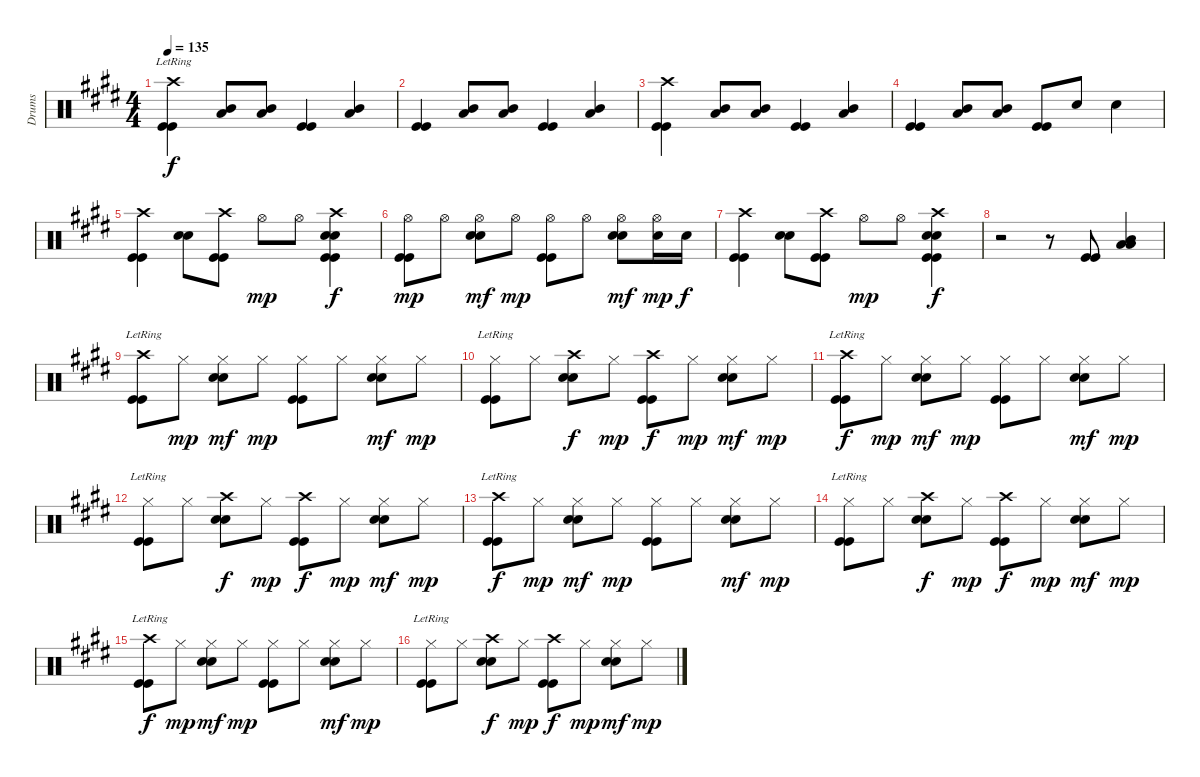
\track ("Drums" "Drums") {instrument percussion}
\staff {score}
\articulation defaults
\ts (4 4)
\tempo 135
\clef neutral
\ks e
("Crash high (hit)"{lr} "Kick (hit)" "Kick (hit)").4{dy f} ("Low Tom (hit)" "Mid Tom (hit)").8 ("Low Tom (hit)" "Mid Tom (hit)").8 ("Kick (hit)" "Kick (hit)").4 ("Low Tom (hit)" "Mid Tom (hit)").4 |
("Kick (hit)" "Kick (hit)").4 ("Low Tom (hit)" "Mid Tom (hit)").8 ("Low Tom (hit)" "Mid Tom (hit)").8 ("Kick (hit)" "Kick (hit)").4 ("Low Tom (hit)" "Mid Tom (hit)").4 |
("Crash high (hit)" "Kick (hit)" "Kick (hit)").4 ("Low Tom (hit)" "Mid Tom (hit)").8 ("Low Tom (hit)" "Mid Tom (hit)").8 ("Kick (hit)" "Kick (hit)").4 ("Low Tom (hit)" "Mid Tom (hit)").4 |
("Kick (hit)" "Kick (hit)").4 ("Low Tom (hit)" "Mid Tom (hit)").8 ("Low Tom (hit)" "Mid Tom (hit)").8 ("Kick (hit)" "Kick (hit)").8 "Snare (hit) 2".8 "Snare (hit) 2".4 |
("Crash high (hit)" "Kick (hit)" "Kick (hit)").4 ("Snare (hit) 2" "Snare (hit) 2").8 ("Crash high (hit)" "Kick (hit)" "Kick (hit)").8 "Hi-Hat (open)".8{dy mp} "Hi-Hat (open)".8 ("Crash high (hit)" "Snare (hit) 2" "Snare (hit) 2" "Kick (hit)" "Kick (hit)").4{dy f} |
("Hi-Hat (open)" "Kick (hit)" "Kick (hit)").8{dy mp} "Hi-Hat (open)".8 ("Hi-Hat (open)" "Snare (hit) 2" "Snare (hit) 2").8{dy mf} "Hi-Hat (open)".8{dy mp} ("Hi-Hat (open)" "Kick (hit)" "Kick (hit)").8 "Hi-Hat (open)".8 ("Hi-Hat (open)" "Snare (hit) 2" "Snare (hit) 2").8{dy mf} ("Hi-Hat (open)" "Snare (hit) 2").16{dy mp} "Snare (hit) 2".16{dy f} |
("Crash high (hit)" "Kick (hit)" "Kick (hit)").4 ("Snare (hit) 2" "Snare (hit) 2").8 ("Crash high (hit)" "Kick (hit)" "Kick (hit)").8 "Hi-Hat (open)".8{dy mp} "Hi-Hat (open)".8 ("Crash high (hit)" "Snare (hit) 2" "Snare (hit) 2" "Kick (hit)" "Kick (hit)").4{dy f} |
r.2 r.8 ("Kick (hit)" "Kick (hit)").8 ("Low Tom (hit)" "Low Tom (hit)" "Mid Tom (hit)").4 |
("Crash high (hit)"{lr} "Kick (hit)" "Kick (hit)").8 "Hi-Hat (closed)".8{dy mp} ("Hi-Hat (closed)" "Snare (hit) 2" "Snare (hit) 2").8{dy mf} "Hi-Hat (closed)".8{dy mp} ("Hi-Hat (closed)" "Kick (hit)" "Kick (hit)").8 "Hi-Hat (closed)".8 ("Hi-Hat (closed)" "Snare (hit) 2" "Snare (hit) 2").8{dy mf} "Hi-Hat (closed)".8{dy mp} |
("Hi-Hat (closed)"{lr} "Kick (hit)" "Kick (hit)").8 "Hi-Hat (closed)".8 ("Crash high (hit)" "Snare (hit) 2" "Snare (hit) 2").8{dy f} "Hi-Hat (closed)".8{dy mp} ("Crash high (hit)" "Kick (hit)" "Kick (hit)").8{dy f} "Hi-Hat (closed)".8{dy mp} ("Hi-Hat (closed)" "Snare (hit) 2" "Snare (hit) 2").8{dy mf} "Hi-Hat (closed)".8{dy mp} |
("Crash high (hit)"{lr} "Kick (hit)" "Kick (hit)").8{dy f} "Hi-Hat (closed)".8{dy mp} ("Hi-Hat (closed)" "Snare (hit) 2" "Snare (hit) 2").8{dy mf} "Hi-Hat (closed)".8{dy mp} ("Hi-Hat (closed)" "Kick (hit)" "Kick (hit)").8 "Hi-Hat (closed)".8 ("Hi-Hat (closed)" "Snare (hit) 2" "Snare (hit) 2").8{dy mf} "Hi-Hat (closed)".8{dy mp} |
("Hi-Hat (closed)"{lr} "Kick (hit)" "Kick (hit)").8 "Hi-Hat (closed)".8 ("Crash high (hit)" "Snare (hit) 2" "Snare (hit) 2").8{dy f} "Hi-Hat (closed)".8{dy mp} ("Crash high (hit)" "Kick (hit)" "Kick (hit)").8{dy f} "Hi-Hat (closed)".8{dy mp} ("Hi-Hat (closed)" "Snare (hit) 2" "Snare (hit) 2").8{dy mf} "Hi-Hat (closed)".8{dy mp} |
("Crash high (hit)"{lr} "Kick (hit)" "Kick (hit)").8{dy f} "Hi-Hat (closed)".8{dy mp} ("Hi-Hat (closed)" "Snare (hit) 2" "Snare (hit) 2").8{dy mf} "Hi-Hat (closed)".8{dy mp} ("Hi-Hat (closed)" "Kick (hit)" "Kick (hit)").8 "Hi-Hat (closed)".8 ("Hi-Hat (closed)" "Snare (hit) 2" "Snare (hit) 2").8{dy mf} "Hi-Hat (closed)".8{dy mp} |
("Hi-Hat (closed)"{lr} "Kick (hit)" "Kick (hit)").8 "Hi-Hat (closed)".8 ("Crash high (hit)" "Snare (hit) 2" "Snare (hit) 2").8{dy f} "Hi-Hat (closed)".8{dy mp} ("Crash high (hit)" "Kick (hit)" "Kick (hit)").8{dy f} "Hi-Hat (closed)".8{dy mp} ("Hi-Hat (closed)" "Snare (hit) 2" "Snare (hit) 2").8{dy mf} "Hi-Hat (closed)".8{dy mp} |
("Crash high (hit)"{lr} "Kick (hit)" "Kick (hit)").8{dy f} "Hi-Hat (closed)".8{dy mp} ("Hi-Hat (closed)" "Snare (hit) 2" "Snare (hit) 2").8{dy mf} "Hi-Hat (closed)".8{dy mp} ("Hi-Hat (closed)" "Kick (hit)" "Kick (hit)").8 "Hi-Hat (closed)".8 ("Hi-Hat (closed)" "Snare (hit) 2" "Snare (hit) 2").8{dy mf} "Hi-Hat (closed)".8{dy mp} |
("Hi-Hat (closed)"{lr} "Kick (hit)" "Kick (hit)").8 "Hi-Hat (closed)".8 ("Crash high (hit)" "Snare (hit) 2" "Snare (hit) 2").8{dy f} "Hi-Hat (closed)".8{dy mp} ("Crash high (hit)" "Kick (hit)" "Kick (hit)").8{dy f} "Hi-Hat (closed)".8{dy mp} ("Hi-Hat (closed)" "Snare (hit) 2" "Snare (hit) 2").8{dy mf} "Hi-Hat (closed)".8{dy mp}
